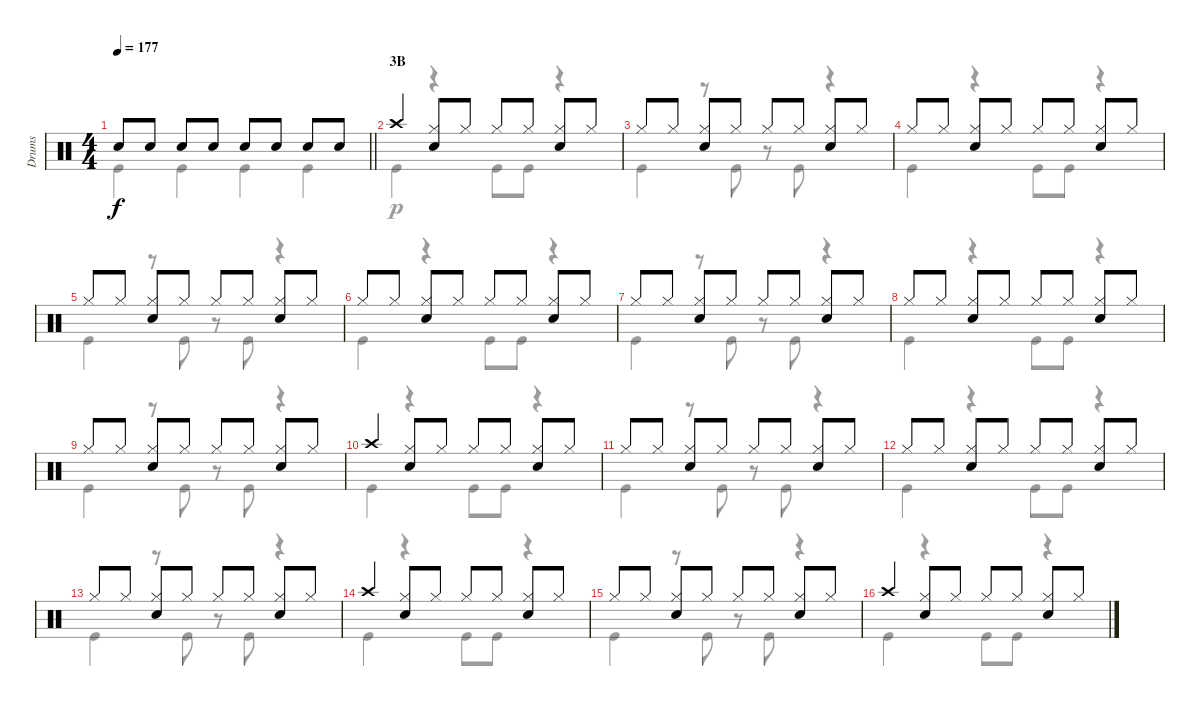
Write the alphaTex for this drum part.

\track ("Drums" "Drums") {instrument percussion}
\staff {score}
\articulation defaults
\voice
\ts (4 4)
\tempo 177
\clef neutral
\barLineRight lightlight
\ks c "Snare (hit) 2".8{dy f} "Snare (hit) 2".8 "Snare (hit) 2".8 "Snare (hit) 2".8 "Snare (hit) 2".8 "Snare (hit) 2".8 "Snare (hit) 2".8 "Snare (hit) 2".8
|
\section ("" "3B")
"Crash high (hit)".4 ("Hi-Hat (closed)" "Snare (hit) 2").8 "Hi-Hat (closed)".8 "Hi-Hat (closed)".8 "Hi-Hat (closed)".8 ("Hi-Hat (closed)" "Snare (hit) 2").8 "Hi-Hat (closed)".8 |
"Hi-Hat (closed)".8 "Hi-Hat (closed)".8 ("Hi-Hat (closed)" "Snare (hit) 2").8 "Hi-Hat (closed)".8 "Hi-Hat (closed)".8 "Hi-Hat (closed)".8 ("Hi-Hat (closed)" "Snare (hit) 2").8 "Hi-Hat (closed)".8 |
"Hi-Hat (closed)".8 "Hi-Hat (closed)".8 ("Hi-Hat (closed)" "Snare (hit) 2").8 "Hi-Hat (closed)".8 "Hi-Hat (closed)".8 "Hi-Hat (closed)".8 ("Hi-Hat (closed)" "Snare (hit) 2").8 "Hi-Hat (closed)".8 |
"Hi-Hat (closed)".8 "Hi-Hat (closed)".8 ("Hi-Hat (closed)" "Snare (hit) 2").8 "Hi-Hat (closed)".8 "Hi-Hat (closed)".8 "Hi-Hat (closed)".8 ("Hi-Hat (closed)" "Snare (hit) 2").8 "Hi-Hat (closed)".8 |
"Hi-Hat (closed)".8 "Hi-Hat (closed)".8 ("Hi-Hat (closed)" "Snare (hit) 2").8 "Hi-Hat (closed)".8 "Hi-Hat (closed)".8 "Hi-Hat (closed)".8 ("Hi-Hat (closed)" "Snare (hit) 2").8 "Hi-Hat (closed)".8 |
"Hi-Hat (closed)".8 "Hi-Hat (closed)".8 ("Hi-Hat (closed)" "Snare (hit) 2").8 "Hi-Hat (closed)".8 "Hi-Hat (closed)".8 "Hi-Hat (closed)".8 ("Hi-Hat (closed)" "Snare (hit) 2").8 "Hi-Hat (closed)".8 |
"Hi-Hat (closed)".8 "Hi-Hat (closed)".8 ("Hi-Hat (closed)" "Snare (hit) 2").8 "Hi-Hat (closed)".8 "Hi-Hat (closed)".8 "Hi-Hat (closed)".8 ("Hi-Hat (closed)" "Snare (hit) 2").8 "Hi-Hat (closed)".8 |
"Hi-Hat (closed)".8 "Hi-Hat (closed)".8 ("Hi-Hat (closed)" "Snare (hit) 2").8 "Hi-Hat (closed)".8 "Hi-Hat (closed)".8 "Hi-Hat (closed)".8 ("Hi-Hat (closed)" "Snare (hit) 2").8 "Hi-Hat (closed)".8 |
"Crash high (hit)".4 ("Hi-Hat (closed)" "Snare (hit) 2").8 "Hi-Hat (closed)".8 "Hi-Hat (closed)".8 "Hi-Hat (closed)".8 ("Hi-Hat (closed)" "Snare (hit) 2").8 "Hi-Hat (closed)".8 |
"Hi-Hat (closed)".8 "Hi-Hat (closed)".8 ("Hi-Hat (closed)" "Snare (hit) 2").8 "Hi-Hat (closed)".8 "Hi-Hat (closed)".8 "Hi-Hat (closed)".8 ("Hi-Hat (closed)" "Snare (hit) 2").8 "Hi-Hat (closed)".8 |
"Hi-Hat (closed)".8 "Hi-Hat (closed)".8 ("Hi-Hat (closed)" "Snare (hit) 2").8 "Hi-Hat (closed)".8 "Hi-Hat (closed)".8 "Hi-Hat (closed)".8 ("Hi-Hat (closed)" "Snare (hit) 2").8 "Hi-Hat (closed)".8 |
"Hi-Hat (closed)".8 "Hi-Hat (closed)".8 ("Hi-Hat (closed)" "Snare (hit) 2").8 "Hi-Hat (closed)".8 "Hi-Hat (closed)".8 "Hi-Hat (closed)".8 ("Hi-Hat (closed)" "Snare (hit) 2").8 "Hi-Hat (closed)".8 |
"Crash high (hit)".4 ("Hi-Hat (closed)" "Snare (hit) 2").8 "Hi-Hat (closed)".8 "Hi-Hat (closed)".8 "Hi-Hat (closed)".8 ("Hi-Hat (closed)" "Snare (hit) 2").8 "Hi-Hat (closed)".8 |
"Hi-Hat (closed)".8 "Hi-Hat (closed)".8 ("Hi-Hat (closed)" "Snare (hit) 2").8 "Hi-Hat (closed)".8 "Hi-Hat (closed)".8 "Hi-Hat (closed)".8 ("Hi-Hat (closed)" "Snare (hit) 2").8 "Hi-Hat (closed)".8 |
"Crash high (hit)".4 ("Hi-Hat (closed)" "Snare (hit) 2").8 "Hi-Hat (closed)".8 "Hi-Hat (closed)".8 "Hi-Hat (closed)".8 ("Hi-Hat (closed)" "Snare (hit) 2").8 "Hi-Hat (closed)".8
\voice
\clef neutral
\ottava regular
\simile none
\barLineRight lightlight
\ks c "Kick (hit)".4{dy f} "Kick (hit)".4 "Kick (hit)".4 "Kick (hit)".4
|
"Kick (hit)".4{dy p} r.4 "Kick (hit)".8 "Kick (hit)".8 r.4 |
"Kick (hit)".4 r.8 "Kick (hit)".8 r.8 "Kick (hit)".8 r.4 |
"Kick (hit)".4 r.4 "Kick (hit)".8 "Kick (hit)".8 r.4 |
"Kick (hit)".4 r.8 "Kick (hit)".8 r.8 "Kick (hit)".8 r.4 |
"Kick (hit)".4 r.4 "Kick (hit)".8 "Kick (hit)".8 r.4 |
"Kick (hit)".4 r.8 "Kick (hit)".8 r.8 "Kick (hit)".8 r.4 |
"Kick (hit)".4 r.4 "Kick (hit)".8 "Kick (hit)".8 r.4 |
"Kick (hit)".4 r.8 "Kick (hit)".8 r.8 "Kick (hit)".8 r.4 |
"Kick (hit)".4 r.4 "Kick (hit)".8 "Kick (hit)".8 r.4 |
"Kick (hit)".4 r.8 "Kick (hit)".8 r.8 "Kick (hit)".8 r.4 |
"Kick (hit)".4 r.4 "Kick (hit)".8 "Kick (hit)".8 r.4 |
"Kick (hit)".4 r.8 "Kick (hit)".8 r.8 "Kick (hit)".8 r.4 |
"Kick (hit)".4 r.4 "Kick (hit)".8 "Kick (hit)".8 r.4 |
"Kick (hit)".4 r.8 "Kick (hit)".8 r.8 "Kick (hit)".8 r.4 |
"Kick (hit)".4 r.4 "Kick (hit)".8 "Kick (hit)".8 r.4
